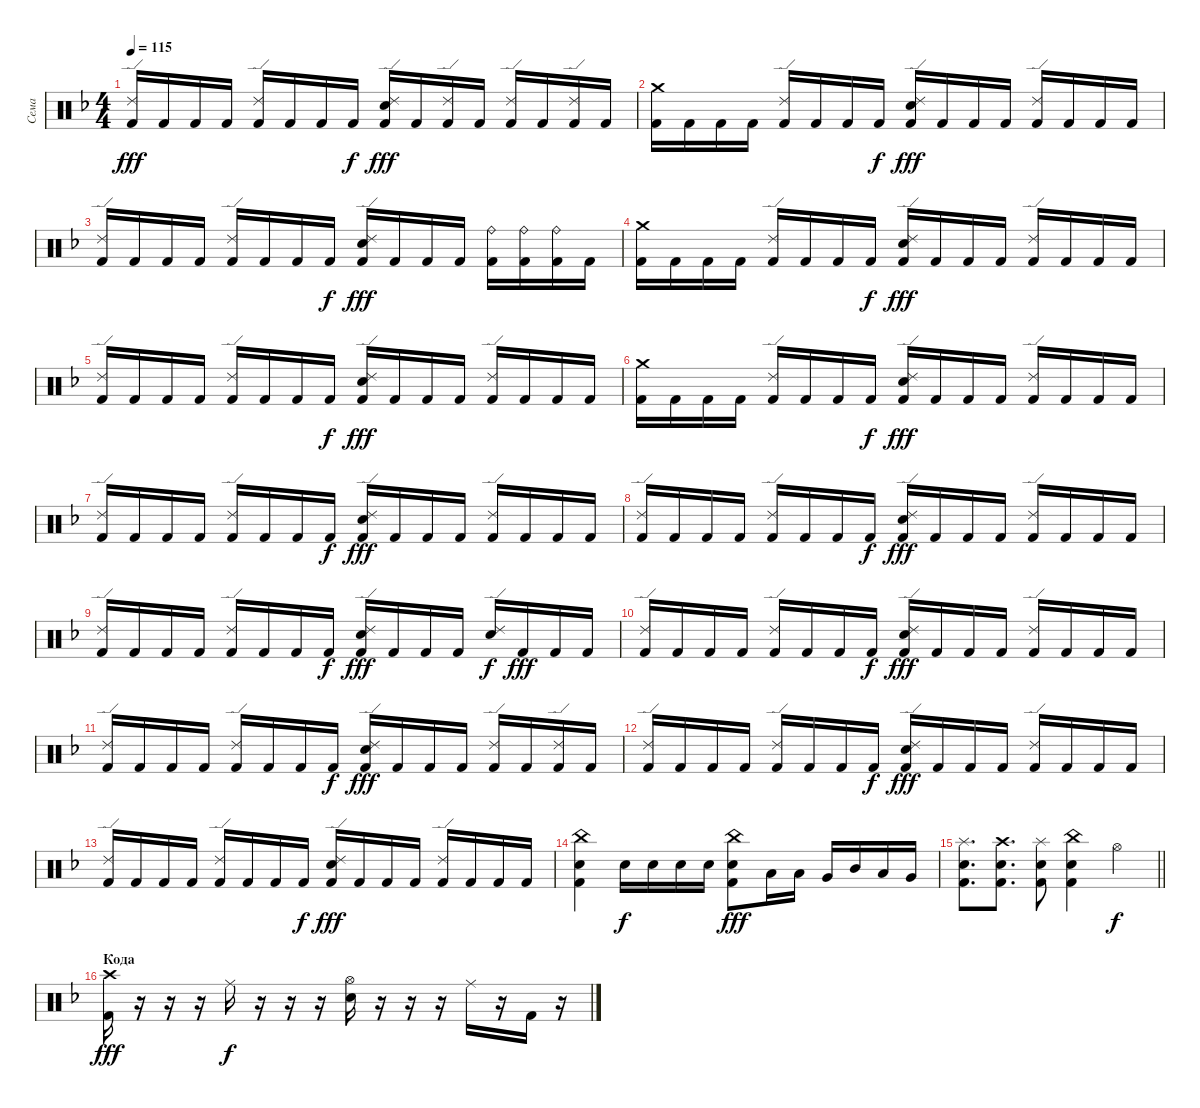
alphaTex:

\track ("Сема" "Сема") {instrument percussion}
\staff {score}
\articulation defaults
\ts (4 4)
\tempo 115
\clef neutral
\ks dminor
("Ride (edge) 2" "Kick (hit) 2").16{dy fff} "Kick (hit) 2".16 "Kick (hit) 2".16 "Kick (hit) 2".16 ("Ride (edge) 2" "Kick (hit) 2").16 "Kick (hit) 2".16 "Kick (hit) 2".16 "Kick (hit) 2".16{dy f} ("Ride (edge) 2" "Electric Snare (hit)" "Kick (hit) 2").16{dy fff} "Kick (hit) 2".16 ("Ride (edge) 2" "Kick (hit) 2").16 "Kick (hit) 2".16 ("Ride (edge) 2" "Kick (hit) 2").16 "Kick (hit) 2".16 ("Ride (edge) 2" "Kick (hit) 2").16 "Kick (hit) 2".16 |
("Crash medium (hit)" "Kick (hit) 2").16 "Kick (hit) 2".16 "Kick (hit) 2".16 "Kick (hit) 2".16 ("Ride (edge) 2" "Kick (hit) 2").16 "Kick (hit) 2".16 "Kick (hit) 2".16 "Kick (hit) 2".16{dy f} ("Ride (edge) 2" "Electric Snare (hit)" "Kick (hit) 2").16{dy fff} "Kick (hit) 2".16 "Kick (hit) 2".16 "Kick (hit) 2".16 ("Ride (edge) 2" "Kick (hit) 2").16 "Kick (hit) 2".16 "Kick (hit) 2".16 "Kick (hit) 2".16 |
("Ride (edge) 2" "Kick (hit) 2").16 "Kick (hit) 2".16 "Kick (hit) 2".16 "Kick (hit) 2".16 ("Ride (edge) 2" "Kick (hit) 2").16 "Kick (hit) 2".16 "Kick (hit) 2".16 "Kick (hit) 2".16{dy f} ("Ride (edge) 2" "Electric Snare (hit)" "Kick (hit) 2").16{dy fff} "Kick (hit) 2".16 "Kick (hit) 2".16 "Kick (hit) 2".16 ("Ride (bell)" "Kick (hit) 2").16 ("Ride (bell)" "Kick (hit) 2").16 ("Ride (bell)" "Kick (hit) 2").16 "Kick (hit) 2".16 |
("Crash medium (hit)" "Kick (hit) 2").16 "Kick (hit) 2".16 "Kick (hit) 2".16 "Kick (hit) 2".16 ("Ride (edge) 2" "Kick (hit) 2").16 "Kick (hit) 2".16 "Kick (hit) 2".16 "Kick (hit) 2".16{dy f} ("Ride (edge) 2" "Electric Snare (hit)" "Kick (hit) 2").16{dy fff} "Kick (hit) 2".16 "Kick (hit) 2".16 "Kick (hit) 2".16 ("Ride (edge) 2" "Kick (hit) 2").16 "Kick (hit) 2".16 "Kick (hit) 2".16 "Kick (hit) 2".16 |
("Ride (edge) 2" "Kick (hit) 2").16 "Kick (hit) 2".16 "Kick (hit) 2".16 "Kick (hit) 2".16 ("Ride (edge) 2" "Kick (hit) 2").16 "Kick (hit) 2".16 "Kick (hit) 2".16 "Kick (hit) 2".16{dy f} ("Ride (edge) 2" "Electric Snare (hit)" "Kick (hit) 2").16{dy fff} "Kick (hit) 2".16 "Kick (hit) 2".16 "Kick (hit) 2".16 ("Ride (edge) 2" "Kick (hit) 2").16 "Kick (hit) 2".16 "Kick (hit) 2".16 "Kick (hit) 2".16 |
("Crash medium (hit)" "Kick (hit) 2").16 "Kick (hit) 2".16 "Kick (hit) 2".16 "Kick (hit) 2".16 ("Ride (edge) 2" "Kick (hit) 2").16 "Kick (hit) 2".16 "Kick (hit) 2".16 "Kick (hit) 2".16{dy f} ("Ride (edge) 2" "Electric Snare (hit)" "Kick (hit) 2").16{dy fff} "Kick (hit) 2".16 "Kick (hit) 2".16 "Kick (hit) 2".16 ("Ride (edge) 2" "Kick (hit) 2").16 "Kick (hit) 2".16 "Kick (hit) 2".16 "Kick (hit) 2".16 |
("Ride (edge) 2" "Kick (hit) 2").16 "Kick (hit) 2".16 "Kick (hit) 2".16 "Kick (hit) 2".16 ("Ride (edge) 2" "Kick (hit) 2").16 "Kick (hit) 2".16 "Kick (hit) 2".16 "Kick (hit) 2".16{dy f} ("Ride (edge) 2" "Electric Snare (hit)" "Kick (hit) 2").16{dy fff} "Kick (hit) 2".16 "Kick (hit) 2".16 "Kick (hit) 2".16 ("Ride (edge) 2" "Kick (hit) 2").16 "Kick (hit) 2".16 "Kick (hit) 2".16 "Kick (hit) 2".16 |
("Ride (edge) 2" "Kick (hit) 2").16 "Kick (hit) 2".16 "Kick (hit) 2".16 "Kick (hit) 2".16 ("Ride (edge) 2" "Kick (hit) 2").16 "Kick (hit) 2".16 "Kick (hit) 2".16 "Kick (hit) 2".16{dy f} ("Ride (edge) 2" "Electric Snare (hit)" "Kick (hit) 2").16{dy fff} "Kick (hit) 2".16 "Kick (hit) 2".16 "Kick (hit) 2".16 ("Ride (edge) 2" "Kick (hit) 2").16 "Kick (hit) 2".16 "Kick (hit) 2".16 "Kick (hit) 2".16 |
("Ride (edge) 2" "Kick (hit) 2").16 "Kick (hit) 2".16 "Kick (hit) 2".16 "Kick (hit) 2".16 ("Ride (edge) 2" "Kick (hit) 2").16 "Kick (hit) 2".16 "Kick (hit) 2".16 "Kick (hit) 2".16{dy f} ("Ride (edge) 2" "Electric Snare (hit)" "Kick (hit) 2").16{dy fff} "Kick (hit) 2".16 "Kick (hit) 2".16 "Kick (hit) 2".16 ("Ride (edge) 2" "Electric Snare (hit)").16{dy f} "Kick (hit) 2".16{dy fff} "Kick (hit) 2".16 "Kick (hit) 2".16 |
("Ride (edge) 2" "Kick (hit) 2").16 "Kick (hit) 2".16 "Kick (hit) 2".16 "Kick (hit) 2".16 ("Ride (edge) 2" "Kick (hit) 2").16 "Kick (hit) 2".16 "Kick (hit) 2".16 "Kick (hit) 2".16{dy f} ("Ride (edge) 2" "Electric Snare (hit)" "Kick (hit) 2").16{dy fff} "Kick (hit) 2".16 "Kick (hit) 2".16 "Kick (hit) 2".16 ("Ride (edge) 2" "Kick (hit) 2").16 "Kick (hit) 2".16 "Kick (hit) 2".16 "Kick (hit) 2".16 |
("Ride (edge) 2" "Kick (hit) 2").16 "Kick (hit) 2".16 "Kick (hit) 2".16 "Kick (hit) 2".16 ("Ride (edge) 2" "Kick (hit) 2").16 "Kick (hit) 2".16 "Kick (hit) 2".16 "Kick (hit) 2".16{dy f} ("Ride (edge) 2" "Electric Snare (hit)" "Kick (hit) 2").16{dy fff} "Kick (hit) 2".16 "Kick (hit) 2".16 "Kick (hit) 2".16 ("Ride (edge) 2" "Kick (hit) 2").16 "Kick (hit) 2".16 ("Ride (edge) 2" "Kick (hit) 2").16 "Kick (hit) 2".16 |
("Ride (edge) 2" "Kick (hit) 2").16 "Kick (hit) 2".16 "Kick (hit) 2".16 "Kick (hit) 2".16 ("Ride (edge) 2" "Kick (hit) 2").16 "Kick (hit) 2".16 "Kick (hit) 2".16 "Kick (hit) 2".16{dy f} ("Ride (edge) 2" "Electric Snare (hit)" "Kick (hit) 2").16{dy fff} "Kick (hit) 2".16 "Kick (hit) 2".16 "Kick (hit) 2".16 ("Ride (edge) 2" "Kick (hit) 2").16 "Kick (hit) 2".16 "Kick (hit) 2".16 "Kick (hit) 2".16 |
("Ride (edge) 2" "Kick (hit) 2").16 "Kick (hit) 2".16 "Kick (hit) 2".16 "Kick (hit) 2".16 ("Ride (edge) 2" "Kick (hit) 2").16 "Kick (hit) 2".16 "Kick (hit) 2".16 "Kick (hit) 2".16{dy f} ("Ride (edge) 2" "Electric Snare (hit)" "Kick (hit) 2").16{dy fff} "Kick (hit) 2".16 "Kick (hit) 2".16 "Kick (hit) 2".16 ("Ride (edge) 2" "Kick (hit) 2").16 "Kick (hit) 2".16 "Kick (hit) 2".16 "Kick (hit) 2".16 |
("China (hit)" "Electric Snare (hit)" "Kick (hit) 2").4 "Electric Snare (hit)".16{dy f} "Electric Snare (hit)".16 "Electric Snare (hit)".16 "Electric Snare (hit)".16 ("China (hit)" "Electric Snare (hit)" "Kick (hit) 2").8{dy fff} "Low Tom (hit)".16 "Low Floor Tom (hit)".16 "Very Low Tom (hit)".16 "Mid Tom (hit)".16 "Low Tom (hit)".16 "Very Low Tom (hit)".16 |
\barLineRight lightlight
("Splash (hit)" "Electric Snare (hit)" "Kick (hit) 2").8{d} ("Crash high (hit)" "Electric Snare (hit)" "Kick (hit) 2").8{d} ("Splash (hit)" "Electric Snare (hit)" "Kick (hit) 2").8 ("China (hit)" "Electric Snare (hit)" "Kick (hit) 2").4 "Hi-Hat (open)".4{dy f} |
\section ("" "Кода")
("Crash high (hit)" "Kick (hit) 2").16{dy fff} r.16 r.16 r.16 "Ride (middle)".16{dy f} r.16 r.16 r.16 ("Hi-Hat (open)" "Electric Snare (hit)").16 r.16 r.16 r.16 "Ride (middle)".16 r.16 "Kick (hit) 2".16 r.16
